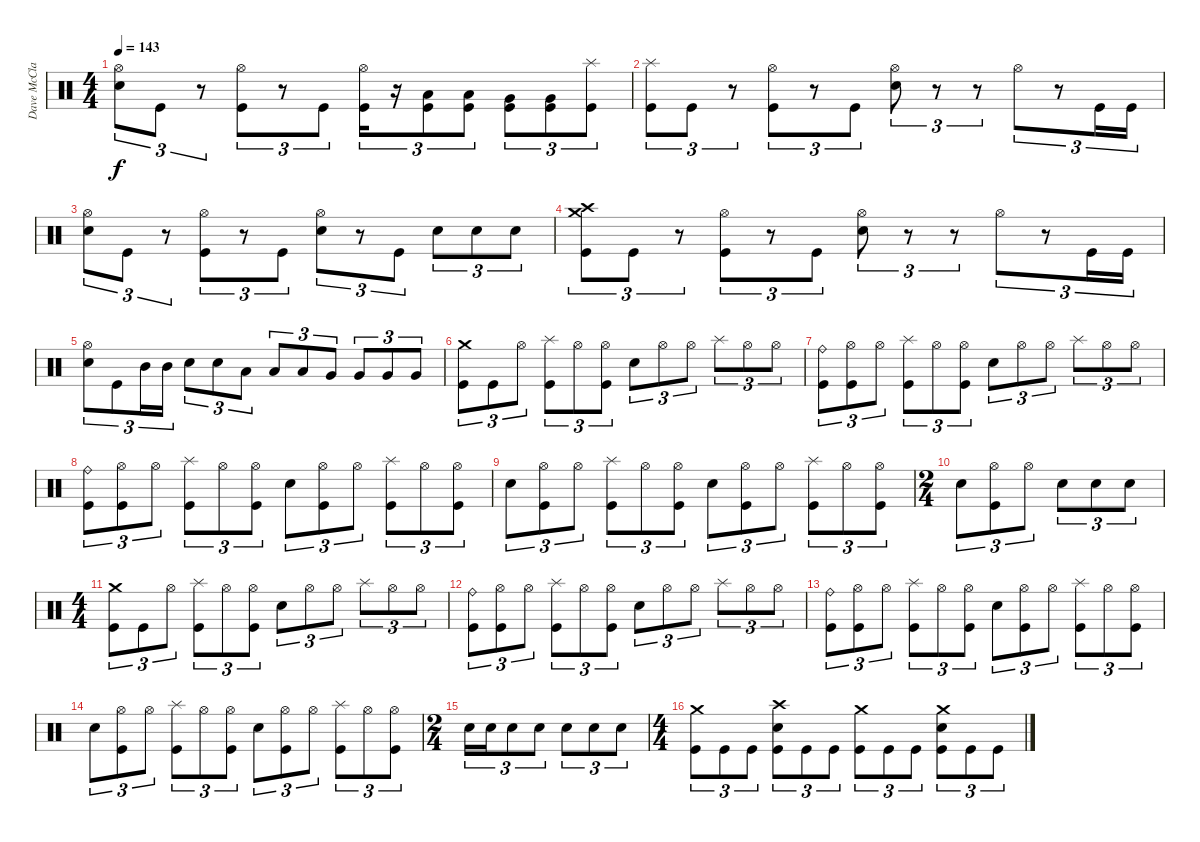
\track ("Dave McClaine" "Dave McCla") {instrument percussion}
\staff {score}
\articulation defaults
\ts (4 4)
\tempo 143
\clef neutral
\ks c
("Snare (hit) 2" "Hi-Hat (open)").8{tu (3 2) dy f} "Kick (hit)".8{tu (3 2)} r.8{tu (3 2)} ("Hi-Hat (open)" "Kick (hit)").8{tu (3 2)} r.8{tu (3 2)} "Kick (hit)".8{tu (3 2)} ("Kick (hit)" "Hi-Hat (open)").16{tu (3 2)} r.16{tu (3 2)} ("Low Tom (hit)" "Kick (hit)").8{tu (3 2)} ("Low Tom (hit)" "Kick (hit)").8{tu (3 2)} ("Very Low Tom (hit)" "Kick (hit)").8{tu (3 2)} ("Very Low Tom (hit)" "Kick (hit)").8{tu (3 2)} ("Splash (hit)" "Kick (hit)").8{tu (3 2)} |
("Kick (hit)" "Splash (hit)").8{tu (3 2)} "Kick (hit)".8{tu (3 2)} r.8{tu (3 2)} ("Hi-Hat (open)" "Kick (hit)").8{tu (3 2)} r.8{tu (3 2)} "Kick (hit)".8{tu (3 2)} ("Snare (hit) 2" "Hi-Hat (open)").8{tu (3 2)} r.8{tu (3 2)} r.8{tu (3 2)} "Hi-Hat (open)".8{tu (3 2)} r.8{tu (3 2)} "Kick (hit)".16{tu (3 2)} "Kick (hit)".16{tu (3 2)} |
("Snare (hit) 2" "Hi-Hat (open)").8{tu (3 2)} "Kick (hit)".8{tu (3 2)} r.8{tu (3 2)} ("Hi-Hat (open)" "Kick (hit)").8{tu (3 2)} r.8{tu (3 2)} "Kick (hit)".8{tu (3 2)} ("Snare (hit) 2" "Hi-Hat (open)").8{tu (3 2)} r.8{tu (3 2)} "Kick (hit)".8{tu (3 2)} "Snare (hit) 2".8{tu (3 2)} "Snare (hit) 2".8{tu (3 2)} "Snare (hit) 2".8{tu (3 2)} |
("Kick (hit)" "Crash high (hit)" "Crash medium (hit)").8{tu (3 2)} "Kick (hit)".8{tu (3 2)} r.8{tu (3 2)} ("Hi-Hat (open)" "Kick (hit)").8{tu (3 2)} r.8{tu (3 2)} "Kick (hit)".8{tu (3 2)} ("Snare (hit) 2" "Hi-Hat (open)").8{tu (3 2)} r.8{tu (3 2)} r.8{tu (3 2)} "Hi-Hat (open)".8{tu (3 2)} r.8{tu (3 2)} "Kick (hit)".16{tu (3 2)} "Kick (hit)".16{tu (3 2)} |
("Snare (hit) 2" "Hi-Hat (open)").8{tu (3 2)} "Kick (hit)".8{tu (3 2)} "Mid Tom (hit)".16{tu (3 2)} "Mid Tom (hit)".16{tu (3 2)} "Snare (hit) 2".8{tu (3 2)} "Snare (hit) 2".8{tu (3 2)} "Low Tom (hit)".8{tu (3 2)} "Low Tom (hit)".8{tu (3 2)} "Low Tom (hit)".8{tu (3 2)} "Very Low Tom (hit)".8{tu (3 2)} "Very Low Tom (hit)".8{tu (3 2)} "Very Low Tom (hit)".8{tu (3 2)} "Very Low Tom (hit)".8{tu (3 2)} |
("Kick (hit)" "Crash medium (hit)").8{tu (3 2)} "Kick (hit)".8{tu (3 2)} "Hi-Hat (open)".8{tu (3 2)} ("Kick (hit)" "Splash (hit)").8{tu (3 2)} "Hi-Hat (open)".8{tu (3 2)} ("Kick (hit)" "Hi-Hat (open)").8{tu (3 2)} "Snare (hit) 2".8{tu (3 2)} "Hi-Hat (open)".8{tu (3 2)} "Hi-Hat (open)".8{tu (3 2)} "Splash (hit)".8{tu (3 2)} "Hi-Hat (open)".8{tu (3 2)} "Hi-Hat (open)".8{tu (3 2)} |
("Kick (hit)" "Ride (bell)").8{tu (3 2)} ("Kick (hit)" "Hi-Hat (open)").8{tu (3 2)} "Hi-Hat (open)".8{tu (3 2)} ("Kick (hit)" "Splash (hit)").8{tu (3 2)} "Hi-Hat (open)".8{tu (3 2)} ("Kick (hit)" "Hi-Hat (open)").8{tu (3 2)} "Snare (hit) 2".8{tu (3 2)} "Hi-Hat (open)".8{tu (3 2)} "Hi-Hat (open)".8{tu (3 2)} "Splash (hit)".8{tu (3 2)} "Hi-Hat (open)".8{tu (3 2)} "Hi-Hat (open)".8{tu (3 2)} |
("Kick (hit)" "Ride (bell)").8{tu (3 2)} ("Kick (hit)" "Hi-Hat (open)").8{tu (3 2)} "Hi-Hat (open)".8{tu (3 2)} ("Kick (hit)" "Splash (hit)").8{tu (3 2)} "Hi-Hat (open)".8{tu (3 2)} ("Kick (hit)" "Hi-Hat (open)").8{tu (3 2)} "Snare (hit) 2".8{tu (3 2)} ("Hi-Hat (open)" "Kick (hit)").8{tu (3 2)} "Hi-Hat (open)".8{tu (3 2)} ("Splash (hit)" "Kick (hit)").8{tu (3 2)} "Hi-Hat (open)".8{tu (3 2)} ("Hi-Hat (open)" "Kick (hit)").8{tu (3 2)} |
"Snare (hit) 2".8{tu (3 2)} ("Kick (hit)" "Hi-Hat (open)").8{tu (3 2)} "Hi-Hat (open)".8{tu (3 2)} ("Kick (hit)" "Splash (hit)").8{tu (3 2)} "Hi-Hat (open)".8{tu (3 2)} ("Kick (hit)" "Hi-Hat (open)").8{tu (3 2)} "Snare (hit) 2".8{tu (3 2)} ("Hi-Hat (open)" "Kick (hit)").8{tu (3 2)} "Hi-Hat (open)".8{tu (3 2)} ("Splash (hit)" "Kick (hit)").8{tu (3 2)} "Hi-Hat (open)".8{tu (3 2)} ("Hi-Hat (open)" "Kick (hit)").8{tu (3 2)} |
\ts (2 4)
"Snare (hit) 2".8{tu (3 2)} ("Kick (hit)" "Hi-Hat (open)").8{tu (3 2)} "Hi-Hat (open)".8{tu (3 2)} "Snare (hit) 2".8{tu (3 2)} "Snare (hit) 2".8{tu (3 2)} "Snare (hit) 2".8{tu (3 2)} |
\ts (4 4)
("Kick (hit)" "Crash medium (hit)").8{tu (3 2)} "Kick (hit)".8{tu (3 2)} "Hi-Hat (open)".8{tu (3 2)} ("Kick (hit)" "Splash (hit)").8{tu (3 2)} "Hi-Hat (open)".8{tu (3 2)} ("Kick (hit)" "Hi-Hat (open)").8{tu (3 2)} "Snare (hit) 2".8{tu (3 2)} "Hi-Hat (open)".8{tu (3 2)} "Hi-Hat (open)".8{tu (3 2)} "Splash (hit)".8{tu (3 2)} "Hi-Hat (open)".8{tu (3 2)} "Hi-Hat (open)".8{tu (3 2)} |
("Kick (hit)" "Ride (bell)").8{tu (3 2)} ("Kick (hit)" "Hi-Hat (open)").8{tu (3 2)} "Hi-Hat (open)".8{tu (3 2)} ("Kick (hit)" "Splash (hit)").8{tu (3 2)} "Hi-Hat (open)".8{tu (3 2)} ("Kick (hit)" "Hi-Hat (open)").8{tu (3 2)} "Snare (hit) 2".8{tu (3 2)} "Hi-Hat (open)".8{tu (3 2)} "Hi-Hat (open)".8{tu (3 2)} "Splash (hit)".8{tu (3 2)} "Hi-Hat (open)".8{tu (3 2)} "Hi-Hat (open)".8{tu (3 2)} |
("Kick (hit)" "Ride (bell)").8{tu (3 2)} ("Kick (hit)" "Hi-Hat (open)").8{tu (3 2)} "Hi-Hat (open)".8{tu (3 2)} ("Kick (hit)" "Splash (hit)").8{tu (3 2)} "Hi-Hat (open)".8{tu (3 2)} ("Kick (hit)" "Hi-Hat (open)").8{tu (3 2)} "Snare (hit) 2".8{tu (3 2)} ("Hi-Hat (open)" "Kick (hit)").8{tu (3 2)} "Hi-Hat (open)".8{tu (3 2)} ("Splash (hit)" "Kick (hit)").8{tu (3 2)} "Hi-Hat (open)".8{tu (3 2)} ("Hi-Hat (open)" "Kick (hit)").8{tu (3 2)} |
"Snare (hit) 2".8{tu (3 2)} ("Kick (hit)" "Hi-Hat (open)").8{tu (3 2)} "Hi-Hat (open)".8{tu (3 2)} ("Kick (hit)" "Splash (hit)").8{tu (3 2)} "Hi-Hat (open)".8{tu (3 2)} ("Kick (hit)" "Hi-Hat (open)").8{tu (3 2)} "Snare (hit) 2".8{tu (3 2)} ("Hi-Hat (open)" "Kick (hit)").8{tu (3 2)} "Hi-Hat (open)".8{tu (3 2)} ("Splash (hit)" "Kick (hit)").8{tu (3 2)} "Hi-Hat (open)".8{tu (3 2)} ("Hi-Hat (open)" "Kick (hit)").8{tu (3 2)} |
\ts (2 4)
"Snare (hit) 2".16{tu (3 2)} "Snare (hit) 2".16{tu (3 2)} "Snare (hit) 2".8{tu (3 2)} "Snare (hit) 2".8{tu (3 2)} "Snare (hit) 2".8{tu (3 2)} "Snare (hit) 2".8{tu (3 2)} "Snare (hit) 2".8{tu (3 2)} |
\ts (4 4)
("Kick (hit)" "Crash medium (hit)").8{tu (3 2)} "Kick (hit)".8{tu (3 2)} "Kick (hit)".8{tu (3 2)} ("Kick (hit)" "Snare (hit) 2" "Crash high (hit)").8{tu (3 2)} "Kick (hit)".8{tu (3 2)} "Kick (hit)".8{tu (3 2)} ("Kick (hit)" "Crash medium (hit)").8{tu (3 2)} "Kick (hit)".8{tu (3 2)} "Kick (hit)".8{tu (3 2)} ("Kick (hit)" "Crash medium (hit)" "Snare (hit) 2").8{tu (3 2)} "Kick (hit)".8{tu (3 2)} "Kick (hit)".8{tu (3 2)}
